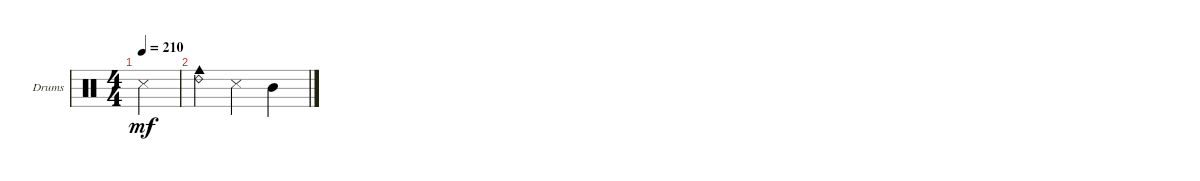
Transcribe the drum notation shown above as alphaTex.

\defaultSystemsLayout 4
\bracketExtendMode groupsimilarinstruments
\firstSystemTrackNameOrientation horizontal
\otherSystemsTrackNameOrientation horizontal
\track ("Drums" "Drums") {instrument percussion}
\staff {score}
\articulation defaults
\ts (4 4)
\tempo 210
\clef neutral
\ks c "Snare (side stick) 3".4{dy mf}
|
("Ride (bell) 2" "Cowbell medium (hit)").4 "Snare (side stick) 3".4 "Mid Tom (hit)".4
